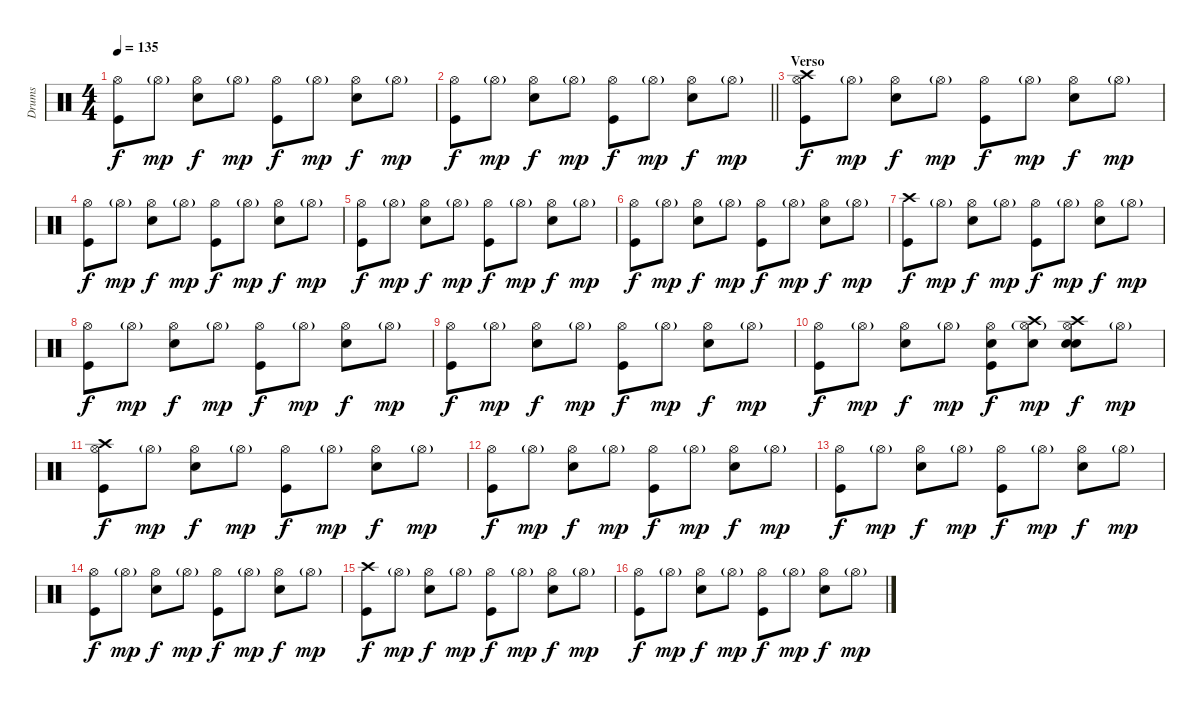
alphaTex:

\track ("Drums" "Drums") {instrument percussion}
\staff {score}
\articulation defaults
\ts (4 4)
\tempo 135
\clef neutral
\ks c
("Hi-Hat (open)" "Kick (hit)").8{dy f} "Hi-Hat (open)"{g}.8{dy mp} ("Hi-Hat (open)" "Snare (hit) 2").8{dy f} "Hi-Hat (open)"{g}.8{dy mp} ("Hi-Hat (open)" "Kick (hit)").8{dy f} "Hi-Hat (open)"{g}.8{dy mp} ("Hi-Hat (open)" "Snare (hit) 2").8{dy f} "Hi-Hat (open)"{g}.8{dy mp} |
\barLineRight lightlight
("Hi-Hat (open)" "Kick (hit)").8{dy f} "Hi-Hat (open)"{g}.8{dy mp} ("Hi-Hat (open)" "Snare (hit) 2").8{dy f} "Hi-Hat (open)"{g}.8{dy mp} ("Hi-Hat (open)" "Kick (hit)").8{dy f} "Hi-Hat (open)"{g}.8{dy mp} ("Hi-Hat (open)" "Snare (hit) 2").8{dy f} "Hi-Hat (open)"{g}.8{dy mp} |
\section ("" "Verso")
("Hi-Hat (open)" "Crash high (hit)" "Kick (hit)").8{dy f} "Hi-Hat (open)"{g}.8{dy mp} ("Hi-Hat (open)" "Snare (hit) 2").8{dy f} "Hi-Hat (open)"{g}.8{dy mp} ("Hi-Hat (open)" "Kick (hit)").8{dy f} "Hi-Hat (open)"{g}.8{dy mp} ("Hi-Hat (open)" "Snare (hit) 2").8{dy f} "Hi-Hat (open)"{g}.8{dy mp} |
("Hi-Hat (open)" "Kick (hit)").8{dy f} "Hi-Hat (open)"{g}.8{dy mp} ("Hi-Hat (open)" "Snare (hit) 2").8{dy f} "Hi-Hat (open)"{g}.8{dy mp} ("Hi-Hat (open)" "Kick (hit)").8{dy f} "Hi-Hat (open)"{g}.8{dy mp} ("Hi-Hat (open)" "Snare (hit) 2").8{dy f} "Hi-Hat (open)"{g}.8{dy mp} |
("Hi-Hat (open)" "Kick (hit)").8{dy f} "Hi-Hat (open)"{g}.8{dy mp} ("Hi-Hat (open)" "Snare (hit) 2").8{dy f} "Hi-Hat (open)"{g}.8{dy mp} ("Hi-Hat (open)" "Kick (hit)").8{dy f} "Hi-Hat (open)"{g}.8{dy mp} ("Hi-Hat (open)" "Snare (hit) 2").8{dy f} "Hi-Hat (open)"{g}.8{dy mp} |
("Hi-Hat (open)" "Kick (hit)").8{dy f} "Hi-Hat (open)"{g}.8{dy mp} ("Hi-Hat (open)" "Snare (hit) 2").8{dy f} "Hi-Hat (open)"{g}.8{dy mp} ("Hi-Hat (open)" "Kick (hit)").8{dy f} "Hi-Hat (open)"{g}.8{dy mp} ("Hi-Hat (open)" "Snare (hit) 2").8{dy f} "Hi-Hat (open)"{g}.8{dy mp} |
("Crash high (hit)" "Kick (hit)").8{dy f} "Hi-Hat (open)"{g}.8{dy mp} ("Hi-Hat (open)" "Snare (hit) 2").8{dy f} "Hi-Hat (open)"{g}.8{dy mp} ("Hi-Hat (open)" "Kick (hit)").8{dy f} "Hi-Hat (open)"{g}.8{dy mp} ("Hi-Hat (open)" "Snare (hit) 2").8{dy f} "Hi-Hat (open)"{g}.8{dy mp} |
("Hi-Hat (open)" "Kick (hit)").8{dy f} "Hi-Hat (open)"{g}.8{dy mp} ("Hi-Hat (open)" "Snare (hit) 2").8{dy f} "Hi-Hat (open)"{g}.8{dy mp} ("Hi-Hat (open)" "Kick (hit)").8{dy f} "Hi-Hat (open)"{g}.8{dy mp} ("Hi-Hat (open)" "Snare (hit) 2").8{dy f} "Hi-Hat (open)"{g}.8{dy mp} |
("Hi-Hat (open)" "Kick (hit)").8{dy f} "Hi-Hat (open)"{g}.8{dy mp} ("Hi-Hat (open)" "Snare (hit) 2").8{dy f} "Hi-Hat (open)"{g}.8{dy mp} ("Hi-Hat (open)" "Kick (hit)").8{dy f} "Hi-Hat (open)"{g}.8{dy mp} ("Hi-Hat (open)" "Snare (hit) 2").8{dy f} "Hi-Hat (open)"{g}.8{dy mp} |
("Hi-Hat (open)" "Kick (hit)").8{dy f} "Hi-Hat (open)"{g}.8{dy mp} ("Hi-Hat (open)" "Snare (hit) 2").8{dy f} "Hi-Hat (open)"{g}.8{dy mp} ("Hi-Hat (open)" "Snare (hit) 2" "Kick (hit)").8{dy f} ("Hi-Hat (open)"{g} "Snare (hit) 2" "Crash high (hit)").8{dy mp} ("Hi-Hat (open)" "Snare (hit) 2" "Crash high (hit)" "Snare (hit) 2").8{dy f} "Hi-Hat (open)"{g}.8{dy mp} |
("Hi-Hat (open)" "Crash high (hit)" "Kick (hit)").8{dy f} "Hi-Hat (open)"{g}.8{dy mp} ("Hi-Hat (open)" "Snare (hit) 2").8{dy f} "Hi-Hat (open)"{g}.8{dy mp} ("Hi-Hat (open)" "Kick (hit)").8{dy f} "Hi-Hat (open)"{g}.8{dy mp} ("Hi-Hat (open)" "Snare (hit) 2").8{dy f} "Hi-Hat (open)"{g}.8{dy mp} |
("Hi-Hat (open)" "Kick (hit)").8{dy f} "Hi-Hat (open)"{g}.8{dy mp} ("Hi-Hat (open)" "Snare (hit) 2").8{dy f} "Hi-Hat (open)"{g}.8{dy mp} ("Hi-Hat (open)" "Kick (hit)").8{dy f} "Hi-Hat (open)"{g}.8{dy mp} ("Hi-Hat (open)" "Snare (hit) 2").8{dy f} "Hi-Hat (open)"{g}.8{dy mp} |
("Hi-Hat (open)" "Kick (hit)").8{dy f} "Hi-Hat (open)"{g}.8{dy mp} ("Hi-Hat (open)" "Snare (hit) 2").8{dy f} "Hi-Hat (open)"{g}.8{dy mp} ("Hi-Hat (open)" "Kick (hit)").8{dy f} "Hi-Hat (open)"{g}.8{dy mp} ("Hi-Hat (open)" "Snare (hit) 2").8{dy f} "Hi-Hat (open)"{g}.8{dy mp} |
("Hi-Hat (open)" "Kick (hit)").8{dy f} "Hi-Hat (open)"{g}.8{dy mp} ("Hi-Hat (open)" "Snare (hit) 2").8{dy f} "Hi-Hat (open)"{g}.8{dy mp} ("Hi-Hat (open)" "Kick (hit)").8{dy f} "Hi-Hat (open)"{g}.8{dy mp} ("Hi-Hat (open)" "Snare (hit) 2").8{dy f} "Hi-Hat (open)"{g}.8{dy mp} |
("Crash high (hit)" "Kick (hit)").8{dy f} "Hi-Hat (open)"{g}.8{dy mp} ("Hi-Hat (open)" "Snare (hit) 2").8{dy f} "Hi-Hat (open)"{g}.8{dy mp} ("Hi-Hat (open)" "Kick (hit)").8{dy f} "Hi-Hat (open)"{g}.8{dy mp} ("Hi-Hat (open)" "Snare (hit) 2").8{dy f} "Hi-Hat (open)"{g}.8{dy mp} |
("Hi-Hat (open)" "Kick (hit)").8{dy f} "Hi-Hat (open)"{g}.8{dy mp} ("Hi-Hat (open)" "Snare (hit) 2").8{dy f} "Hi-Hat (open)"{g}.8{dy mp} ("Hi-Hat (open)" "Kick (hit)").8{dy f} "Hi-Hat (open)"{g}.8{dy mp} ("Hi-Hat (open)" "Snare (hit) 2").8{dy f} "Hi-Hat (open)"{g}.8{dy mp}
